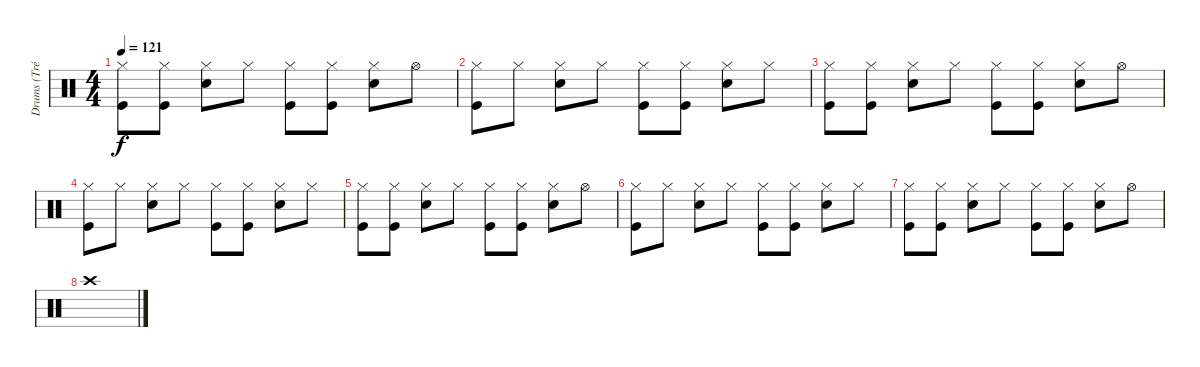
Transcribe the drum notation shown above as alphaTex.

\track ("Drums (Tré)" "Drums (Tré") {instrument percussion}
\staff {score}
\articulation defaults
\ts (4 4)
\tempo 121
\clef neutral
\ks c
("Hi-Hat (closed)" "Kick (hit)").8{dy f} ("Hi-Hat (closed)" "Kick (hit)").8 ("Hi-Hat (closed)" "Snare (hit) 2").8 "Hi-Hat (closed)".8 ("Hi-Hat (closed)" "Kick (hit)").8 ("Hi-Hat (closed)" "Kick (hit)").8 ("Hi-Hat (closed)" "Snare (hit) 2").8 "Hi-Hat (open)".8 |
("Hi-Hat (closed)" "Kick (hit)").8 "Hi-Hat (closed)".8 ("Hi-Hat (closed)" "Snare (hit) 2").8 "Hi-Hat (closed)".8 ("Hi-Hat (closed)" "Kick (hit)").8 ("Hi-Hat (closed)" "Kick (hit)").8 ("Hi-Hat (closed)" "Snare (hit) 2").8 "Hi-Hat (closed)".8 |
("Hi-Hat (closed)" "Kick (hit)").8 ("Hi-Hat (closed)" "Kick (hit)").8 ("Hi-Hat (closed)" "Snare (hit) 2").8 "Hi-Hat (closed)".8 ("Hi-Hat (closed)" "Kick (hit)").8 ("Hi-Hat (closed)" "Kick (hit)").8 ("Hi-Hat (closed)" "Snare (hit) 2").8 "Hi-Hat (open)".8 |
("Hi-Hat (closed)" "Kick (hit)").8 "Hi-Hat (closed)".8 ("Hi-Hat (closed)" "Snare (hit) 2").8 "Hi-Hat (closed)".8 ("Hi-Hat (closed)" "Kick (hit)").8 ("Hi-Hat (closed)" "Kick (hit)").8 ("Hi-Hat (closed)" "Snare (hit) 2").8 "Hi-Hat (closed)".8 |
("Hi-Hat (closed)" "Kick (hit)").8 ("Hi-Hat (closed)" "Kick (hit)").8 ("Hi-Hat (closed)" "Snare (hit) 2").8 "Hi-Hat (closed)".8 ("Hi-Hat (closed)" "Kick (hit)").8 ("Hi-Hat (closed)" "Kick (hit)").8 ("Hi-Hat (closed)" "Snare (hit) 2").8 "Hi-Hat (open)".8 |
("Hi-Hat (closed)" "Kick (hit)").8 "Hi-Hat (closed)".8 ("Hi-Hat (closed)" "Snare (hit) 2").8 "Hi-Hat (closed)".8 ("Hi-Hat (closed)" "Kick (hit)").8 ("Hi-Hat (closed)" "Kick (hit)").8 ("Hi-Hat (closed)" "Snare (hit) 2").8 "Hi-Hat (closed)".8 |
("Hi-Hat (closed)" "Kick (hit)").8 ("Hi-Hat (closed)" "Kick (hit)").8 ("Hi-Hat (closed)" "Snare (hit) 2").8 "Hi-Hat (closed)".8 ("Hi-Hat (closed)" "Kick (hit)").8 ("Hi-Hat (closed)" "Kick (hit)").8 ("Hi-Hat (closed)" "Snare (hit) 2").8 "Hi-Hat (open)".8 |
"Crash high (hit)".1
